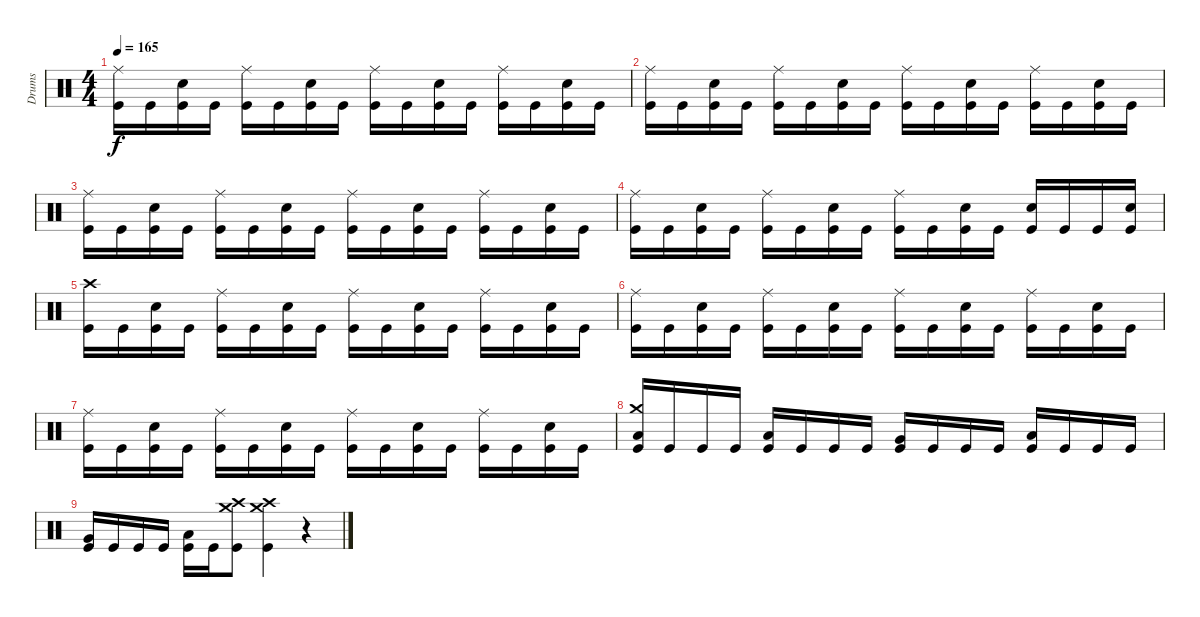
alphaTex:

\track ("Drums" "Drums") {instrument percussion}
\staff {score}
\articulation defaults
\ts (4 4)
\tempo 165
\clef neutral
\ks c
("Ride (middle)" "Kick (hit)").16{dy f} "Kick (hit)".16 ("Electric Snare (hit)" "Kick (hit)").16 "Kick (hit)".16 ("Ride (middle)" "Kick (hit)").16 "Kick (hit)".16 ("Electric Snare (hit)" "Kick (hit)").16 "Kick (hit)".16 ("Ride (middle)" "Kick (hit)").16 "Kick (hit)".16 ("Electric Snare (hit)" "Kick (hit)").16 "Kick (hit)".16 ("Ride (middle)" "Kick (hit)").16 "Kick (hit)".16 ("Electric Snare (hit)" "Kick (hit)").16 "Kick (hit)".16 |
("Ride (middle)" "Kick (hit)").16 "Kick (hit)".16 ("Electric Snare (hit)" "Kick (hit)").16 "Kick (hit)".16 ("Ride (middle)" "Kick (hit)").16 "Kick (hit)".16 ("Electric Snare (hit)" "Kick (hit)").16 "Kick (hit)".16 ("Ride (middle)" "Kick (hit)").16 "Kick (hit)".16 ("Electric Snare (hit)" "Kick (hit)").16 "Kick (hit)".16 ("Ride (middle)" "Kick (hit)").16 "Kick (hit)".16 ("Electric Snare (hit)" "Kick (hit)").16 "Kick (hit)".16 |
("Ride (middle)" "Kick (hit)").16 "Kick (hit)".16 ("Electric Snare (hit)" "Kick (hit)").16 "Kick (hit)".16 ("Ride (middle)" "Kick (hit)").16 "Kick (hit)".16 ("Electric Snare (hit)" "Kick (hit)").16 "Kick (hit)".16 ("Ride (middle)" "Kick (hit)").16 "Kick (hit)".16 ("Electric Snare (hit)" "Kick (hit)").16 "Kick (hit)".16 ("Ride (middle)" "Kick (hit)").16 "Kick (hit)".16 ("Electric Snare (hit)" "Kick (hit)").16 "Kick (hit)".16 |
("Ride (middle)" "Kick (hit)").16 "Kick (hit)".16 ("Electric Snare (hit)" "Kick (hit)").16 "Kick (hit)".16 ("Ride (middle)" "Kick (hit)").16 "Kick (hit)".16 ("Electric Snare (hit)" "Kick (hit)").16 "Kick (hit)".16 ("Ride (middle)" "Kick (hit)").16 "Kick (hit)".16 ("Electric Snare (hit)" "Kick (hit)").16 "Kick (hit)".16 ("Electric Snare (hit)" "Kick (hit)").16 "Kick (hit)".16 "Kick (hit)".16 ("Electric Snare (hit)" "Kick (hit)").16 |
("Crash high (hit)" "Kick (hit)").16 "Kick (hit)".16 ("Electric Snare (hit)" "Kick (hit)").16 "Kick (hit)".16 ("Ride (middle)" "Kick (hit)").16 "Kick (hit)".16 ("Electric Snare (hit)" "Kick (hit)").16 "Kick (hit)".16 ("Ride (middle)" "Kick (hit)").16 "Kick (hit)".16 ("Electric Snare (hit)" "Kick (hit)").16 "Kick (hit)".16 ("Ride (middle)" "Kick (hit)").16 "Kick (hit)".16 ("Electric Snare (hit)" "Kick (hit)").16 "Kick (hit)".16 |
("Ride (middle)" "Kick (hit)").16 "Kick (hit)".16 ("Electric Snare (hit)" "Kick (hit)").16 "Kick (hit)".16 ("Ride (middle)" "Kick (hit)").16 "Kick (hit)".16 ("Electric Snare (hit)" "Kick (hit)").16 "Kick (hit)".16 ("Ride (middle)" "Kick (hit)").16 "Kick (hit)".16 ("Electric Snare (hit)" "Kick (hit)").16 "Kick (hit)".16 ("Ride (middle)" "Kick (hit)").16 "Kick (hit)".16 ("Electric Snare (hit)" "Kick (hit)").16 "Kick (hit)".16 |
("Ride (middle)" "Kick (hit)").16 "Kick (hit)".16 ("Electric Snare (hit)" "Kick (hit)").16 "Kick (hit)".16 ("Ride (middle)" "Kick (hit)").16 "Kick (hit)".16 ("Electric Snare (hit)" "Kick (hit)").16 "Kick (hit)".16 ("Ride (middle)" "Kick (hit)").16 "Kick (hit)".16 ("Electric Snare (hit)" "Kick (hit)").16 "Kick (hit)".16 ("Ride (middle)" "Kick (hit)").16 "Kick (hit)".16 ("Electric Snare (hit)" "Kick (hit)").16 "Kick (hit)".16 |
("Crash medium (hit)" "Low Tom (hit)" "Kick (hit)").16 "Kick (hit)".16 "Kick (hit)".16 "Kick (hit)".16 ("Low Tom (hit)" "Kick (hit)").16 "Kick (hit)".16 "Kick (hit)".16 "Kick (hit)".16 ("Very Low Tom (hit)" "Kick (hit)").16 "Kick (hit)".16 "Kick (hit)".16 "Kick (hit)".16 ("Low Floor Tom (hit)" "Kick (hit)").16 "Kick (hit)".16 "Kick (hit)".16 "Kick (hit)".16 |
("Very Low Tom (hit)" "Kick (hit)").16 "Kick (hit)".16 "Kick (hit)".16 "Kick (hit)".16 ("Low Floor Tom (hit)" "Kick (hit)").16{volume 14 balance 8} "Kick (hit)".16 ("Crash high (hit)" "Crash medium (hit)" "Kick (hit)").8 ("Kick (hit)" "Crash high (hit)" "Crash medium (hit)").4 r.4
